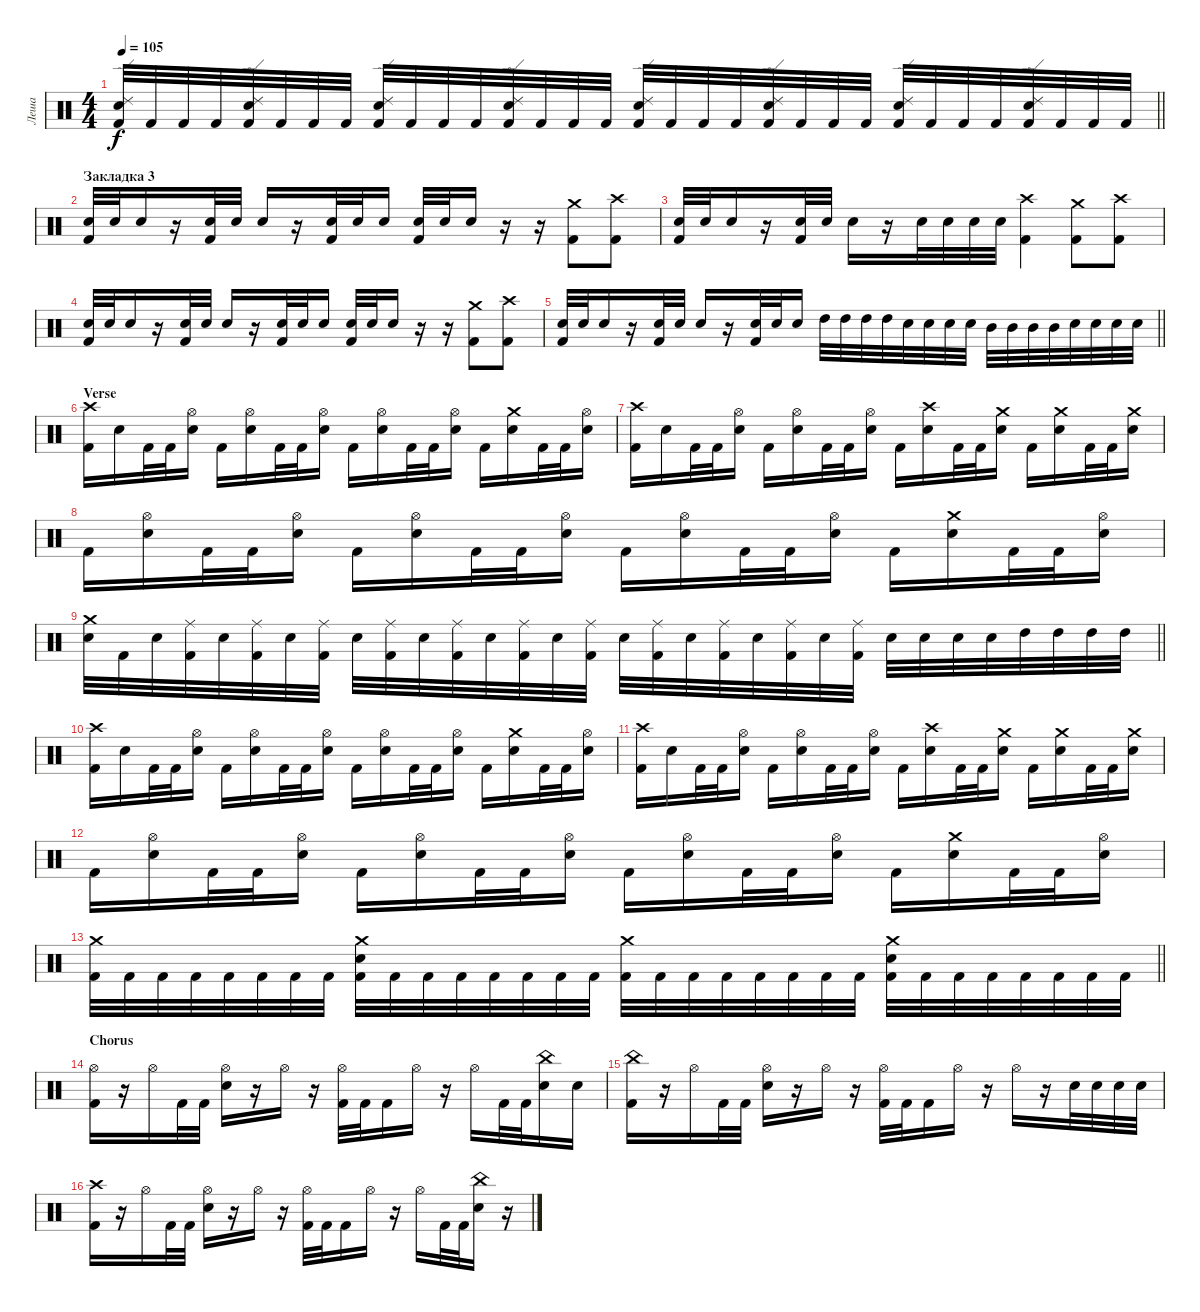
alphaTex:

\track ("Леша" "Леша") {instrument percussion}
\staff {score}
\articulation defaults
\ts (4 4)
\tempo 105
\clef neutral
\barLineRight lightlight
\ks c
("Ride (edge) 2" "Electric Snare (hit)" "Kick (hit) 2").32{dy f} "Kick (hit) 2".32 "Kick (hit) 2".32 "Kick (hit) 2".32 ("Ride (edge) 2" "Electric Snare (hit)" "Kick (hit) 2").32 "Kick (hit) 2".32 "Kick (hit) 2".32 "Kick (hit) 2".32 ("Ride (edge) 2" "Electric Snare (hit)" "Kick (hit) 2").32 "Kick (hit) 2".32 "Kick (hit) 2".32 "Kick (hit) 2".32 ("Ride (edge) 2" "Electric Snare (hit)" "Kick (hit) 2").32 "Kick (hit) 2".32 "Kick (hit) 2".32 "Kick (hit) 2".32 ("Ride (edge) 2" "Electric Snare (hit)" "Kick (hit) 2").32 "Kick (hit) 2".32 "Kick (hit) 2".32 "Kick (hit) 2".32 ("Ride (edge) 2" "Electric Snare (hit)" "Kick (hit) 2").32 "Kick (hit) 2".32 "Kick (hit) 2".32 "Kick (hit) 2".32 ("Ride (edge) 2" "Electric Snare (hit)" "Kick (hit) 2").32 "Kick (hit) 2".32 "Kick (hit) 2".32 "Kick (hit) 2".32 ("Ride (edge) 2" "Electric Snare (hit)" "Kick (hit) 2").32 "Kick (hit) 2".32 "Kick (hit) 2".32 "Kick (hit) 2".32 |
\section ("" "Закладка 3")
("Electric Snare (hit)" "Kick (hit) 2").32 "Electric Snare (hit)".32 "Electric Snare (hit)".16 r.16 ("Electric Snare (hit)" "Kick (hit) 2").32 "Electric Snare (hit)".32 "Electric Snare (hit)".16 r.16 ("Electric Snare (hit)" "Kick (hit) 2").32 "Electric Snare (hit)".32 "Electric Snare (hit)".16 ("Electric Snare (hit)" "Kick (hit) 2").32 "Electric Snare (hit)".32 "Electric Snare (hit)".16 r.16 r.16 ("Crash medium (hit)" "Kick (hit) 2").8 ("Crash high (hit)" "Kick (hit) 2").8 |
("Electric Snare (hit)" "Kick (hit) 2").32 "Electric Snare (hit)".32 "Electric Snare (hit)".16 r.16 ("Electric Snare (hit)" "Kick (hit) 2").32 "Electric Snare (hit)".32 "Electric Snare (hit)".16 r.16 "Electric Snare (hit)".32 "Electric Snare (hit)".32 "Electric Snare (hit)".32 "Electric Snare (hit)".32 ("Crash high (hit)" "Kick (hit) 2").4 ("Crash medium (hit)" "Kick (hit) 2").8 ("Crash high (hit)" "Kick (hit) 2").8 |
("Electric Snare (hit)" "Kick (hit) 2").32 "Electric Snare (hit)".32 "Electric Snare (hit)".16 r.16 ("Electric Snare (hit)" "Kick (hit) 2").32 "Electric Snare (hit)".32 "Electric Snare (hit)".16 r.16 ("Electric Snare (hit)" "Kick (hit) 2").32 "Electric Snare (hit)".32 "Electric Snare (hit)".16 ("Electric Snare (hit)" "Kick (hit) 2").32 "Electric Snare (hit)".32 "Electric Snare (hit)".16 r.16 r.16 ("Crash medium (hit)" "Kick (hit) 2").8 ("Crash high (hit)" "Kick (hit) 2").8 |
\barLineRight lightlight
("Electric Snare (hit)" "Kick (hit) 2").32 "Electric Snare (hit)".32 "Electric Snare (hit)".16 r.16 ("Electric Snare (hit)" "Kick (hit) 2").32 "Electric Snare (hit)".32 "Electric Snare (hit)".16 r.16 ("Electric Snare (hit)" "Kick (hit) 2").32 "Electric Snare (hit)".32 "Electric Snare (hit)".16 "High Tom (hit)".32 "High Tom (hit)".32 "High Tom (hit)".32 "High Tom (hit)".32 "Electric Snare (hit)".32 "Electric Snare (hit)".32 "Electric Snare (hit)".32 "Electric Snare (hit)".32 "Mid Tom (hit)".32 "Mid Tom (hit)".32 "Mid Tom (hit)".32 "Mid Tom (hit)".32 "Electric Snare (hit)".32 "Electric Snare (hit)".32 "Electric Snare (hit)".32 "Electric Snare (hit)".32 |
\section ("" "Verse")
("Crash high (hit)" "Kick (hit) 2").16 "Electric Snare (hit)".16 "Kick (hit) 2".32 "Kick (hit) 2".32 ("Hi-Hat (open)" "Electric Snare (hit)").16 "Kick (hit) 2".16 ("Hi-Hat (open)" "Electric Snare (hit)").16 "Kick (hit) 2".32 "Kick (hit) 2".32 ("Hi-Hat (open)" "Electric Snare (hit)").16 "Kick (hit) 2".16 ("Hi-Hat (open)" "Electric Snare (hit)").16 "Kick (hit) 2".32 "Kick (hit) 2".32 ("Hi-Hat (open)" "Electric Snare (hit)").16 "Kick (hit) 2".16 ("Crash medium (hit)" "Electric Snare (hit)").16 "Kick (hit) 2".32 "Kick (hit) 2".32 ("Hi-Hat (open)" "Electric Snare (hit)").16 |
("Crash high (hit)" "Kick (hit) 2").16 "Electric Snare (hit)".16 "Kick (hit) 2".32 "Kick (hit) 2".32 ("Hi-Hat (open)" "Electric Snare (hit)").16 "Kick (hit) 2".16 ("Hi-Hat (open)" "Electric Snare (hit)").16 "Kick (hit) 2".32 "Kick (hit) 2".32 ("Hi-Hat (open)" "Electric Snare (hit)").16 "Kick (hit) 2".16 ("Crash high (hit)" "Electric Snare (hit)").16 "Kick (hit) 2".32 "Kick (hit) 2".32 ("Crash medium (hit)" "Electric Snare (hit)").16 "Kick (hit) 2".16 ("Crash medium (hit)" "Electric Snare (hit)").16 "Kick (hit) 2".32 "Kick (hit) 2".32 ("Crash medium (hit)" "Electric Snare (hit)").16 |
"Kick (hit) 2".16 ("Hi-Hat (open)" "Electric Snare (hit)").16 "Kick (hit) 2".32 "Kick (hit) 2".32 ("Hi-Hat (open)" "Electric Snare (hit)").16 "Kick (hit) 2".16 ("Hi-Hat (open)" "Electric Snare (hit)").16 "Kick (hit) 2".32 "Kick (hit) 2".32 ("Hi-Hat (open)" "Electric Snare (hit)").16 "Kick (hit) 2".16 ("Hi-Hat (open)" "Electric Snare (hit)").16 "Kick (hit) 2".32 "Kick (hit) 2".32 ("Hi-Hat (open)" "Electric Snare (hit)").16 "Kick (hit) 2".16 ("Crash medium (hit)" "Electric Snare (hit)").16 "Kick (hit) 2".32 "Kick (hit) 2".32 ("Hi-Hat (open)" "Electric Snare (hit)").16 |
\barLineRight lightlight
("Crash medium (hit)" "Electric Snare (hit)").32 "Kick (hit) 2".32 "Electric Snare (hit)".32 ("Ride (middle)" "Kick (hit) 2").32 "Electric Snare (hit)".32 ("Ride (middle)" "Kick (hit) 2").32 "Electric Snare (hit)".32 ("Ride (middle)" "Kick (hit) 2").32 "Electric Snare (hit)".32 ("Ride (middle)" "Kick (hit) 2").32 "Electric Snare (hit)".32 ("Ride (middle)" "Kick (hit) 2").32 "Electric Snare (hit)".32 ("Ride (middle)" "Kick (hit) 2").32 "Electric Snare (hit)".32 ("Ride (middle)" "Kick (hit) 2").32 "Electric Snare (hit)".32 ("Ride (middle)" "Kick (hit) 2").32 "Electric Snare (hit)".32 ("Ride (middle)" "Kick (hit) 2").32 "Electric Snare (hit)".32 ("Ride (middle)" "Kick (hit) 2").32 "Electric Snare (hit)".32 ("Ride (middle)" "Kick (hit) 2").32 "Electric Snare (hit)".32 "Electric Snare (hit)".32 "Electric Snare (hit)".32 "Electric Snare (hit)".32 "High Tom (hit)".32 "High Tom (hit)".32 "High Tom (hit)".32 "High Tom (hit)".32 |
("Crash high (hit)" "Kick (hit) 2").16 "Electric Snare (hit)".16 "Kick (hit) 2".32 "Kick (hit) 2".32 ("Hi-Hat (open)" "Electric Snare (hit)").16 "Kick (hit) 2".16 ("Hi-Hat (open)" "Electric Snare (hit)").16 "Kick (hit) 2".32 "Kick (hit) 2".32 ("Hi-Hat (open)" "Electric Snare (hit)").16 "Kick (hit) 2".16 ("Hi-Hat (open)" "Electric Snare (hit)").16 "Kick (hit) 2".32 "Kick (hit) 2".32 ("Hi-Hat (open)" "Electric Snare (hit)").16 "Kick (hit) 2".16 ("Crash medium (hit)" "Electric Snare (hit)").16 "Kick (hit) 2".32 "Kick (hit) 2".32 ("Hi-Hat (open)" "Electric Snare (hit)").16 |
("Crash high (hit)" "Kick (hit) 2").16 "Electric Snare (hit)".16 "Kick (hit) 2".32 "Kick (hit) 2".32 ("Hi-Hat (open)" "Electric Snare (hit)").16 "Kick (hit) 2".16 ("Hi-Hat (open)" "Electric Snare (hit)").16 "Kick (hit) 2".32 "Kick (hit) 2".32 ("Hi-Hat (open)" "Electric Snare (hit)").16 "Kick (hit) 2".16 ("Crash high (hit)" "Electric Snare (hit)").16 "Kick (hit) 2".32 "Kick (hit) 2".32 ("Crash medium (hit)" "Electric Snare (hit)").16 "Kick (hit) 2".16 ("Crash medium (hit)" "Electric Snare (hit)").16 "Kick (hit) 2".32 "Kick (hit) 2".32 ("Crash medium (hit)" "Electric Snare (hit)").16 |
"Kick (hit) 2".16 ("Hi-Hat (open)" "Electric Snare (hit)").16 "Kick (hit) 2".32 "Kick (hit) 2".32 ("Hi-Hat (open)" "Electric Snare (hit)").16 "Kick (hit) 2".16 ("Hi-Hat (open)" "Electric Snare (hit)").16 "Kick (hit) 2".32 "Kick (hit) 2".32 ("Hi-Hat (open)" "Electric Snare (hit)").16 "Kick (hit) 2".16 ("Hi-Hat (open)" "Electric Snare (hit)").16 "Kick (hit) 2".32 "Kick (hit) 2".32 ("Hi-Hat (open)" "Electric Snare (hit)").16 "Kick (hit) 2".16 ("Crash medium (hit)" "Electric Snare (hit)").16 "Kick (hit) 2".32 "Kick (hit) 2".32 ("Hi-Hat (open)" "Electric Snare (hit)").16 |
\barLineRight lightlight
("Crash medium (hit)" "Kick (hit) 2").32 "Kick (hit) 2".32 "Kick (hit) 2".32 "Kick (hit) 2".32 "Kick (hit) 2".32 "Kick (hit) 2".32 "Kick (hit) 2".32 "Kick (hit) 2".32 ("Crash medium (hit)" "Electric Snare (hit)" "Kick (hit) 2").32 "Kick (hit) 2".32 "Kick (hit) 2".32 "Kick (hit) 2".32 "Kick (hit) 2".32 "Kick (hit) 2".32 "Kick (hit) 2".32 "Kick (hit) 2".32 ("Crash medium (hit)" "Kick (hit) 2").32 "Kick (hit) 2".32 "Kick (hit) 2".32 "Kick (hit) 2".32 "Kick (hit) 2".32 "Kick (hit) 2".32 "Kick (hit) 2".32 "Kick (hit) 2".32 ("Crash medium (hit)" "Electric Snare (hit)" "Kick (hit) 2").32 "Kick (hit) 2".32 "Kick (hit) 2".32 "Kick (hit) 2".32 "Kick (hit) 2".32 "Kick (hit) 2".32 "Kick (hit) 2".32 "Kick (hit) 2".32 |
\section ("" "Chorus")
("Hi-Hat (open)" "Kick (hit) 2").16 r.16 "Hi-Hat (open)".16 "Kick (hit) 2".32 "Kick (hit) 2".32 ("Hi-Hat (open)" "Electric Snare (hit)").16 r.16 "Hi-Hat (open)".16 r.16 ("Hi-Hat (open)" "Kick (hit) 2").32 "Kick (hit) 2".32 "Kick (hit) 2".16 "Hi-Hat (open)".16 r.16 "Hi-Hat (open)".16 "Kick (hit) 2".32 "Kick (hit) 2".32 ("China (hit)" "Electric Snare (hit)").16 "Electric Snare (hit)".16 |
("China (hit)" "Kick (hit) 2").16 r.16 "Hi-Hat (open)".16 "Kick (hit) 2".32 "Kick (hit) 2".32 ("Hi-Hat (open)" "Electric Snare (hit)").16 r.16 "Hi-Hat (open)".16 r.16 ("Hi-Hat (open)" "Kick (hit) 2").32 "Kick (hit) 2".32 "Kick (hit) 2".16 "Hi-Hat (open)".16 r.16 "Hi-Hat (open)".16 r.16 "Electric Snare (hit)".32 "Electric Snare (hit)".32 "Electric Snare (hit)".32 "Electric Snare (hit)".32 |
("Crash high (hit)" "Kick (hit) 2").16 r.16 "Hi-Hat (open)".16 "Kick (hit) 2".32 "Kick (hit) 2".32 ("Hi-Hat (open)" "Electric Snare (hit)").16 r.16 "Hi-Hat (open)".16 r.16 ("Hi-Hat (open)" "Kick (hit) 2").32 "Kick (hit) 2".32 "Kick (hit) 2".16 "Hi-Hat (open)".16 r.16 "Hi-Hat (open)".16 "Kick (hit) 2".32 "Kick (hit) 2".32 ("China (hit)" "Electric Snare (hit)").16 r.16
